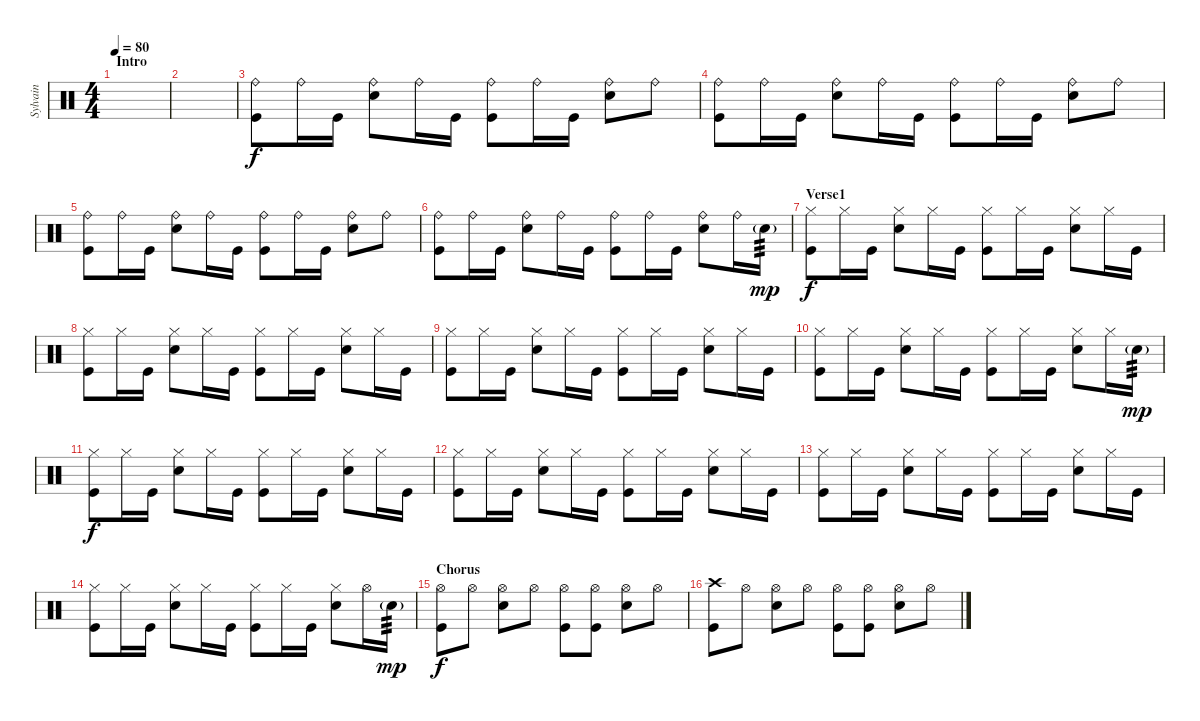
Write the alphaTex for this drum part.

\track ("Sylvain" "Sylvain") {instrument percussion}
\staff {score}
\articulation defaults
\ts (4 4)
\section ("" "Intro")
\tempo 80
\clef neutral
\ks c
|
|
("Ride (bell)" "Kick (hit)").8 "Ride (bell)".16 "Kick (hit)".16 ("Ride (bell)" "Electric Snare (hit)").8 "Ride (bell)".16 "Kick (hit)".16 ("Ride (bell)" "Kick (hit)").8 "Ride (bell)".16 "Kick (hit)".16 ("Ride (bell)" "Electric Snare (hit)").8 "Ride (bell)".8 |
("Ride (bell)" "Kick (hit)").8 "Ride (bell)".16 "Kick (hit)".16 ("Ride (bell)" "Electric Snare (hit)").8 "Ride (bell)".16 "Kick (hit)".16 ("Ride (bell)" "Kick (hit)").8 "Ride (bell)".16 "Kick (hit)".16 ("Ride (bell)" "Electric Snare (hit)").8 "Ride (bell)".8 |
("Ride (bell)" "Kick (hit)").8 "Ride (bell)".16 "Kick (hit)".16 ("Ride (bell)" "Electric Snare (hit)").8 "Ride (bell)".16 "Kick (hit)".16 ("Ride (bell)" "Kick (hit)").8 "Ride (bell)".16 "Kick (hit)".16 ("Ride (bell)" "Electric Snare (hit)").8 "Ride (bell)".8 |
("Ride (bell)" "Kick (hit)").8 "Ride (bell)".16 "Kick (hit)".16 ("Ride (bell)" "Electric Snare (hit)").8 "Ride (bell)".16 "Kick (hit)".16 ("Ride (bell)" "Kick (hit)").8 "Ride (bell)".16 "Kick (hit)".16 ("Ride (bell)" "Electric Snare (hit)").8 "Ride (bell)".16 "Electric Snare (hit)"{g}.16{tp 3 dy mp} |
\section ("" "Verse1")
("Hi-Hat (closed)" "Kick (hit)").8{dy f} "Hi-Hat (closed)".16 "Kick (hit)".16 ("Hi-Hat (closed)" "Electric Snare (hit)").8 "Hi-Hat (closed)".16 "Kick (hit)".16 ("Hi-Hat (closed)" "Kick (hit)").8 "Hi-Hat (closed)".16 "Kick (hit)".16 ("Hi-Hat (closed)" "Electric Snare (hit)").8 "Hi-Hat (closed)".16 "Kick (hit)".16 |
("Hi-Hat (closed)" "Kick (hit)").8 "Hi-Hat (closed)".16 "Kick (hit)".16 ("Hi-Hat (closed)" "Electric Snare (hit)").8 "Hi-Hat (closed)".16 "Kick (hit)".16 ("Hi-Hat (closed)" "Kick (hit)").8 "Hi-Hat (closed)".16 "Kick (hit)".16 ("Hi-Hat (closed)" "Electric Snare (hit)").8 "Hi-Hat (closed)".16 "Kick (hit)".16 |
("Hi-Hat (closed)" "Kick (hit)").8 "Hi-Hat (closed)".16 "Kick (hit)".16 ("Hi-Hat (closed)" "Electric Snare (hit)").8 "Hi-Hat (closed)".16 "Kick (hit)".16 ("Hi-Hat (closed)" "Kick (hit)").8 "Hi-Hat (closed)".16 "Kick (hit)".16 ("Hi-Hat (closed)" "Electric Snare (hit)").8 "Hi-Hat (closed)".16 "Kick (hit)".16 |
("Hi-Hat (closed)" "Kick (hit)").8 "Hi-Hat (closed)".16 "Kick (hit)".16 ("Hi-Hat (closed)" "Electric Snare (hit)").8 "Hi-Hat (closed)".16 "Kick (hit)".16 ("Hi-Hat (closed)" "Kick (hit)").8 "Hi-Hat (closed)".16 "Kick (hit)".16 ("Hi-Hat (closed)" "Electric Snare (hit)").8 "Hi-Hat (closed)".16 "Electric Snare (hit)"{g}.16{tp 3 dy mp} |
("Hi-Hat (closed)" "Kick (hit)").8{dy f} "Hi-Hat (closed)".16 "Kick (hit)".16 ("Hi-Hat (closed)" "Electric Snare (hit)").8 "Hi-Hat (closed)".16 "Kick (hit)".16 ("Hi-Hat (closed)" "Kick (hit)").8 "Hi-Hat (closed)".16 "Kick (hit)".16 ("Hi-Hat (closed)" "Electric Snare (hit)").8 "Hi-Hat (closed)".16 "Kick (hit)".16 |
("Hi-Hat (closed)" "Kick (hit)").8 "Hi-Hat (closed)".16 "Kick (hit)".16 ("Hi-Hat (closed)" "Electric Snare (hit)").8 "Hi-Hat (closed)".16 "Kick (hit)".16 ("Hi-Hat (closed)" "Kick (hit)").8 "Hi-Hat (closed)".16 "Kick (hit)".16 ("Hi-Hat (closed)" "Electric Snare (hit)").8 "Hi-Hat (closed)".16 "Kick (hit)".16 |
("Hi-Hat (closed)" "Kick (hit)").8 "Hi-Hat (closed)".16 "Kick (hit)".16 ("Hi-Hat (closed)" "Electric Snare (hit)").8 "Hi-Hat (closed)".16 "Kick (hit)".16 ("Hi-Hat (closed)" "Kick (hit)").8 "Hi-Hat (closed)".16 "Kick (hit)".16 ("Hi-Hat (closed)" "Electric Snare (hit)").8 "Hi-Hat (closed)".16 "Kick (hit)".16 |
("Hi-Hat (closed)" "Kick (hit)").8 "Hi-Hat (closed)".16 "Kick (hit)".16 ("Hi-Hat (closed)" "Electric Snare (hit)").8 "Hi-Hat (closed)".16 "Kick (hit)".16 ("Hi-Hat (closed)" "Kick (hit)").8 "Hi-Hat (closed)".16 "Kick (hit)".16 ("Hi-Hat (closed)" "Electric Snare (hit)").8 "Hi-Hat (open)".16 "Electric Snare (hit)"{g}.16{tp 3 dy mp} |
\section ("" "Chorus")
("Hi-Hat (open)" "Kick (hit)").8{dy f} "Hi-Hat (open)".8 ("Hi-Hat (open)" "Electric Snare (hit)").8 "Hi-Hat (open)".8 ("Hi-Hat (open)" "Kick (hit)").8 ("Hi-Hat (open)" "Kick (hit)").8 ("Hi-Hat (open)" "Electric Snare (hit)").8 "Hi-Hat (open)".8 |
("Crash high (hit)" "Kick (hit)").8 "Hi-Hat (open)".8 ("Hi-Hat (open)" "Electric Snare (hit)").8 "Hi-Hat (open)".8 ("Hi-Hat (open)" "Kick (hit)").8 ("Hi-Hat (open)" "Kick (hit)").8 ("Hi-Hat (open)" "Electric Snare (hit)").8 "Hi-Hat (open)".8
